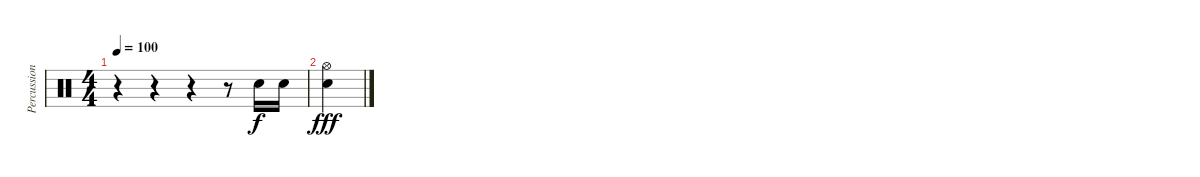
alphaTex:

\track ("Percussions" "Percussion") {instrument percussion}
\staff {score}
\articulation defaults
\ts (4 4)
\tempo 100
\clef neutral
\ks c
r.4{dy f} r.4 r.4 r.8 "Electric Snare (hit)".16 "Electric Snare (hit)".16 |
("Hi-Hat (open)" "Electric Snare (hit)").4{dy fff}
